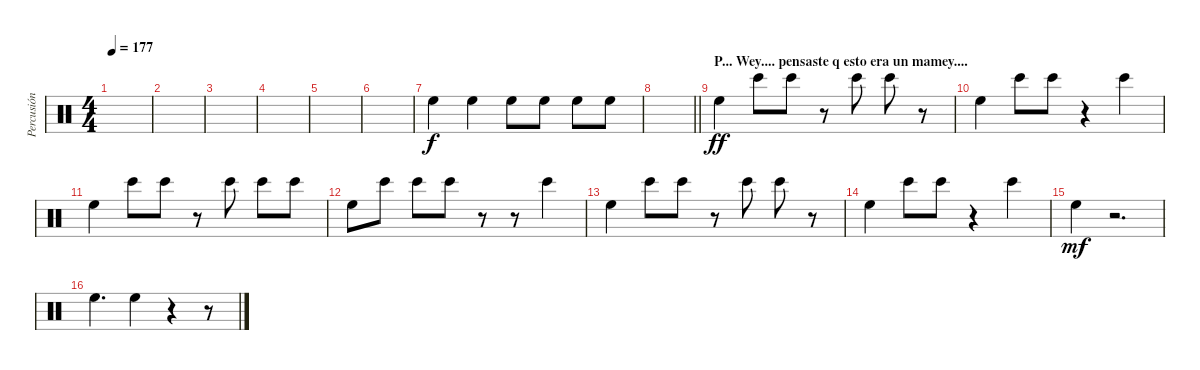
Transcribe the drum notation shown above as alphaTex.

\track ("Percusión" "Percusión") {instrument percussion}
\staff {score}
\articulation defaults
\ts (4 4)
\tempo 177
\clef neutral
\ks c
|
|
|
|
|
|
"High Floor Tom (hit)".4{dy f} "High Floor Tom (hit)".4 "High Floor Tom (hit)".8 "High Floor Tom (hit)".8 "High Floor Tom (hit)".8 "High Floor Tom (hit)".8 |
\barLineRight lightlight
|
\section ("" "P... Wey.... pensaste q esto era un mamey....")
"High Floor Tom (hit)".4{dy ff} "Bongo High (hit)".8 "Bongo High (hit)".8 r.8 "Bongo High (hit)".8 "Bongo High (hit)".8 r.8 |
"High Floor Tom (hit)".4 "Bongo High (hit)".8 "Bongo High (hit)".8 r.4 "Bongo High (hit)".4 |
"High Floor Tom (hit)".4 "Bongo High (hit)".8 "Bongo High (hit)".8 r.8 "Bongo High (hit)".8 "Bongo High (hit)".8 "Bongo High (hit)".8 |
"High Floor Tom (hit)".8 "Bongo High (hit)".8 "Bongo High (hit)".8 "Bongo High (hit)".8 r.8 r.8 "Bongo High (hit)".4 |
"High Floor Tom (hit)".4 "Bongo High (hit)".8 "Bongo High (hit)".8 r.8 "Bongo High (hit)".8 "Bongo High (hit)".8 r.8 |
"High Floor Tom (hit)".4 "Bongo High (hit)".8 "Bongo High (hit)".8 r.4 "Bongo High (hit)".4 |
"High Floor Tom (hit)".4{dy mf} r.2{d} |
"High Floor Tom (hit)".4{d} "High Floor Tom (hit)".4 r.4 r.8
